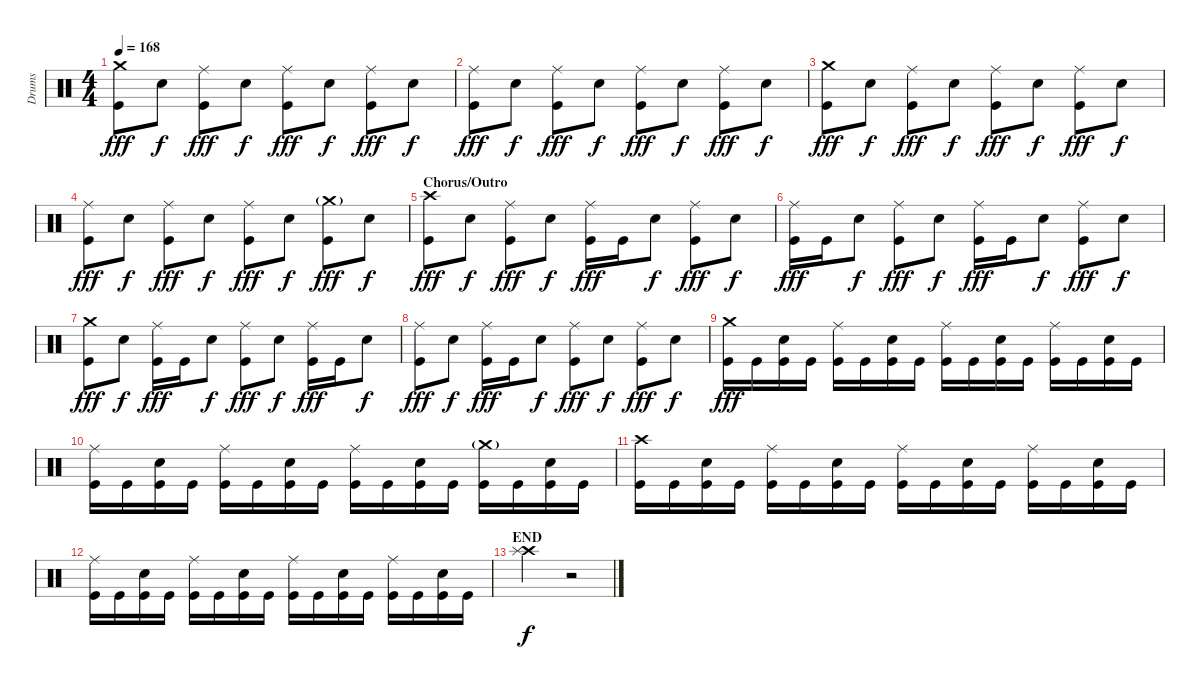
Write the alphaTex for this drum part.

\track ("Drums" "Drums") {instrument percussion}
\staff {score}
\articulation defaults
\ts (4 4)
\tempo 168
\clef neutral
\ks c
("Crash medium (hit)" "Kick (hit)").8{dy fff} "Snare (hit) 2".8{dy f} ("Ride (middle)" "Kick (hit)").8{dy fff} "Snare (hit) 2".8{dy f} ("Ride (middle)" "Kick (hit)").8{dy fff} "Snare (hit) 2".8{dy f} ("Ride (middle)" "Kick (hit)").8{dy fff} "Snare (hit) 2".8{dy f} |
("Ride (middle)" "Kick (hit)").8{dy fff} "Snare (hit) 2".8{dy f} ("Ride (middle)" "Kick (hit)").8{dy fff} "Snare (hit) 2".8{dy f} ("Ride (middle)" "Kick (hit)").8{dy fff} "Snare (hit) 2".8{dy f} ("Ride (middle)" "Kick (hit)").8{dy fff} "Snare (hit) 2".8{dy f} |
("Crash medium (hit)" "Kick (hit)").8{dy fff} "Snare (hit) 2".8{dy f} ("Ride (middle)" "Kick (hit)").8{dy fff} "Snare (hit) 2".8{dy f} ("Ride (middle)" "Kick (hit)").8{dy fff} "Snare (hit) 2".8{dy f} ("Ride (middle)" "Kick (hit)").8{dy fff} "Snare (hit) 2".8{dy f} |
("Ride (middle)" "Kick (hit)").8{dy fff} "Snare (hit) 2".8{dy f} ("Ride (middle)" "Kick (hit)").8{dy fff} "Snare (hit) 2".8{dy f} ("Ride (middle)" "Kick (hit)").8{dy fff} "Snare (hit) 2".8{dy f} ("Crash medium (hit)"{g} "Kick (hit)").8{dy fff} "Snare (hit) 2".8{dy f} |
\section ("" "Chorus/Outro")
("Crash high (hit)" "Kick (hit)").8{dy fff} "Snare (hit) 2".8{dy f} ("Ride (middle)" "Kick (hit)").8{dy fff} "Snare (hit) 2".8{dy f} ("Ride (middle)" "Kick (hit)").16{dy fff} "Kick (hit)".16 "Snare (hit) 2".8{dy f} ("Ride (middle)" "Kick (hit)").8{dy fff} "Snare (hit) 2".8{dy f} |
("Ride (middle)" "Kick (hit)").16{dy fff} "Kick (hit)".16 "Snare (hit) 2".8{dy f} ("Ride (middle)" "Kick (hit)").8{dy fff} "Snare (hit) 2".8{dy f} ("Ride (middle)" "Kick (hit)").16{dy fff} "Kick (hit)".16 "Snare (hit) 2".8{dy f} ("Ride (middle)" "Kick (hit)").8{dy fff} "Snare (hit) 2".8{dy f} |
("Crash medium (hit)" "Kick (hit)").8{dy fff} "Snare (hit) 2".8{dy f} ("Ride (middle)" "Kick (hit)").16{dy fff} "Kick (hit)".16 "Snare (hit) 2".8{dy f} ("Ride (middle)" "Kick (hit)").8{dy fff} "Snare (hit) 2".8{dy f} ("Ride (middle)" "Kick (hit)").16{dy fff} "Kick (hit)".16 "Snare (hit) 2".8{dy f} |
("Ride (middle)" "Kick (hit)").8{dy fff} "Snare (hit) 2".8{dy f} ("Ride (middle)" "Kick (hit)").16{dy fff} "Kick (hit)".16 "Snare (hit) 2".8{dy f} ("Ride (middle)" "Kick (hit)").8{dy fff} "Snare (hit) 2".8{dy f} ("Ride (middle)" "Kick (hit)").8{dy fff} "Snare (hit) 2".8{dy f} |
("Crash medium (hit)" "Kick (hit)").16{dy fff} "Kick (hit)".16 ("Snare (hit) 2" "Kick (hit)").16 "Kick (hit)".16 ("Ride (middle)" "Kick (hit)").16 "Kick (hit)".16 ("Snare (hit) 2" "Kick (hit)").16 "Kick (hit)".16 ("Ride (middle)" "Kick (hit)").16 "Kick (hit)".16 ("Snare (hit) 2" "Kick (hit)").16 "Kick (hit)".16 ("Ride (middle)" "Kick (hit)").16 "Kick (hit)".16 ("Snare (hit) 2" "Kick (hit)").16 "Kick (hit)".16 |
("Ride (middle)" "Kick (hit)").16 "Kick (hit)".16 ("Snare (hit) 2" "Kick (hit)").16 "Kick (hit)".16 ("Ride (middle)" "Kick (hit)").16 "Kick (hit)".16 ("Snare (hit) 2" "Kick (hit)").16 "Kick (hit)".16 ("Ride (middle)" "Kick (hit)").16 "Kick (hit)".16 ("Snare (hit) 2" "Kick (hit)").16 "Kick (hit)".16 ("Crash medium (hit)"{g} "Kick (hit)").16 "Kick (hit)".16 ("Snare (hit) 2" "Kick (hit)").16 "Kick (hit)".16 |
("Crash high (hit)" "Kick (hit)").16 "Kick (hit)".16 ("Snare (hit) 2" "Kick (hit)").16 "Kick (hit)".16 ("Ride (middle)" "Kick (hit)").16 "Kick (hit)".16 ("Snare (hit) 2" "Kick (hit)").16 "Kick (hit)".16 ("Ride (middle)" "Kick (hit)").16 "Kick (hit)".16 ("Snare (hit) 2" "Kick (hit)").16 "Kick (hit)".16 ("Ride (middle)" "Kick (hit)").16 "Kick (hit)".16 ("Snare (hit) 2" "Kick (hit)").16 "Kick (hit)".16 |
("Ride (middle)" "Kick (hit)").16 "Kick (hit)".16 ("Snare (hit) 2" "Kick (hit)").16 "Kick (hit)".16 ("Ride (middle)" "Kick (hit)").16 "Kick (hit)".16 ("Snare (hit) 2" "Kick (hit)").16 "Kick (hit)".16 ("Ride (middle)" "Kick (hit)").16 "Kick (hit)".16 ("Snare (hit) 2" "Kick (hit)").16 "Kick (hit)".16 ("Ride (middle)" "Kick (hit)").16 "Kick (hit)".16 ("Snare (hit) 2" "Kick (hit)").16 "Kick (hit)".16 |
\section ("" "END")
("Crash high (hit)" "Splash (hit)").2{dy f} r.2
